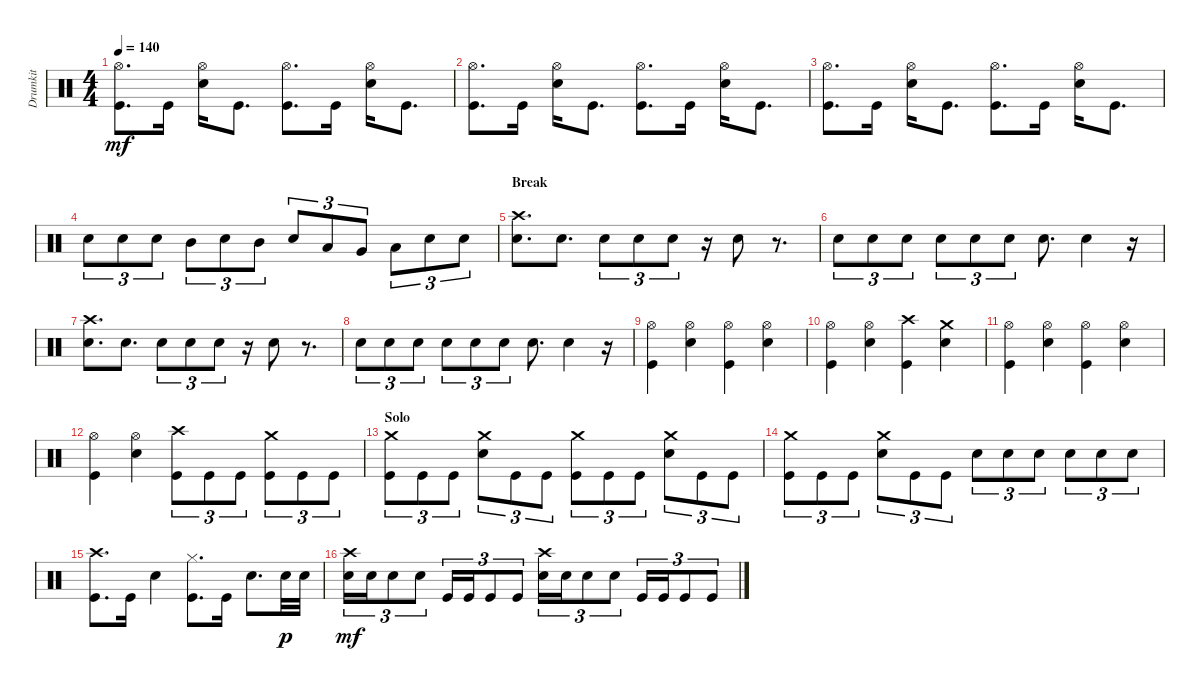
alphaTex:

\track ("Drumkit" "Drumkit") {instrument percussion}
\staff {score}
\articulation defaults
\ts (4 4)
\tempo 140
\clef neutral
\ks c
("Kick (hit)" "Hi-Hat (open)").8{d dy mf} "Kick (hit)".16 ("Snare (hit) 2" "Hi-Hat (open)").16 "Kick (hit)".8{d} ("Kick (hit)" "Hi-Hat (open)").8{d} "Kick (hit)".16 ("Snare (hit) 2" "Hi-Hat (open)").16 "Kick (hit)".8{d} |
("Kick (hit)" "Hi-Hat (open)").8{d} "Kick (hit)".16 ("Snare (hit) 2" "Hi-Hat (open)").16 "Kick (hit)".8{d} ("Kick (hit)" "Hi-Hat (open)").8{d} "Kick (hit)".16 ("Snare (hit) 2" "Hi-Hat (open)").16 "Kick (hit)".8{d} |
("Kick (hit)" "Hi-Hat (open)").8{d} "Kick (hit)".16 ("Snare (hit) 2" "Hi-Hat (open)").16 "Kick (hit)".8{d} ("Kick (hit)" "Hi-Hat (open)").8{d} "Kick (hit)".16 ("Snare (hit) 2" "Hi-Hat (open)").16 "Kick (hit)".8{d} |
"Snare (hit) 2".8{tu (3 2)} "Snare (hit) 2".8{tu (3 2)} "Snare (hit) 2".8{tu (3 2)} "Mid Tom (hit)".8{tu (3 2)} "Snare (hit) 2".8{tu (3 2)} "Mid Tom (hit)".8{tu (3 2)} "Snare (hit) 2".8{tu (3 2)} "Low Tom (hit)".8{tu (3 2)} "Very Low Tom (hit)".8{tu (3 2)} "Low Floor Tom (hit)".8{tu (3 2)} "Snare (hit) 2".8{tu (3 2)} "Snare (hit) 2".8{tu (3 2)} |
\section ("" "Break")
("Snare (hit) 2" "Crash high (hit)").8{d} "Snare (hit) 2".8{d} "Snare (hit) 2".8{tu (3 2)} "Snare (hit) 2".8{tu (3 2)} "Snare (hit) 2".8{tu (3 2)} r.16 "Snare (hit) 2".8 r.8{d} |
"Snare (hit) 2".8{tu (3 2)} "Snare (hit) 2".8{tu (3 2)} "Snare (hit) 2".8{tu (3 2)} "Snare (hit) 2".8{tu (3 2)} "Snare (hit) 2".8{tu (3 2)} "Snare (hit) 2".8{tu (3 2)} "Snare (hit) 2".8{d} "Snare (hit) 2".4 r.16 |
("Snare (hit) 2" "Crash high (hit)").8{d} "Snare (hit) 2".8{d} "Snare (hit) 2".8{tu (3 2)} "Snare (hit) 2".8{tu (3 2)} "Snare (hit) 2".8{tu (3 2)} r.16 "Snare (hit) 2".8 r.8{d} |
"Snare (hit) 2".8{tu (3 2)} "Snare (hit) 2".8{tu (3 2)} "Snare (hit) 2".8{tu (3 2)} "Snare (hit) 2".8{tu (3 2)} "Snare (hit) 2".8{tu (3 2)} "Snare (hit) 2".8{tu (3 2)} "Snare (hit) 2".8{d} "Snare (hit) 2".4 r.16 |
("Kick (hit)" "Hi-Hat (open)").4 ("Snare (hit) 2" "Hi-Hat (open)").4 ("Kick (hit)" "Hi-Hat (open)").4 ("Snare (hit) 2" "Hi-Hat (open)").4 |
("Kick (hit)" "Hi-Hat (open)").4 ("Snare (hit) 2" "Hi-Hat (open)").4 ("Kick (hit)" "Crash high (hit)").4 ("Snare (hit) 2" "Crash medium (hit)").4 |
("Kick (hit)" "Hi-Hat (open)").4 ("Snare (hit) 2" "Hi-Hat (open)").4 ("Kick (hit)" "Hi-Hat (open)").4 ("Snare (hit) 2" "Hi-Hat (open)").4 |
("Kick (hit)" "Hi-Hat (open)").4 ("Snare (hit) 2" "Hi-Hat (open)").4 ("Kick (hit)" "Crash high (hit)").8{tu (3 2)} "Kick (hit)".8{tu (3 2)} "Kick (hit)".8{tu (3 2)} ("Kick (hit)" "Crash medium (hit)").8{tu (3 2)} "Kick (hit)".8{tu (3 2)} "Kick (hit)".8{tu (3 2)} |
\section ("" "Solo")
("Kick (hit)" "Crash medium (hit)").8{tu (3 2)} "Kick (hit)".8{tu (3 2)} "Kick (hit)".8{tu (3 2)} ("Snare (hit) 2" "Crash medium (hit)").8{tu (3 2)} "Kick (hit)".8{tu (3 2)} "Kick (hit)".8{tu (3 2)} ("Kick (hit)" "Crash medium (hit)").8{tu (3 2)} "Kick (hit)".8{tu (3 2)} "Kick (hit)".8{tu (3 2)} ("Snare (hit) 2" "Crash medium (hit)").8{tu (3 2)} "Kick (hit)".8{tu (3 2)} "Kick (hit)".8{tu (3 2)} |
("Kick (hit)" "Crash medium (hit)").8{tu (3 2)} "Kick (hit)".8{tu (3 2)} "Kick (hit)".8{tu (3 2)} ("Snare (hit) 2" "Crash medium (hit)").8{tu (3 2)} "Kick (hit)".8{tu (3 2)} "Kick (hit)".8{tu (3 2)} "Snare (hit) 2".8{tu (3 2)} "Snare (hit) 2".8{tu (3 2)} "Snare (hit) 2".8{tu (3 2)} "Snare (hit) 2".8{tu (3 2)} "Snare (hit) 2".8{tu (3 2)} "Snare (hit) 2".8{tu (3 2)} |
("Kick (hit)" "Crash high (hit)").8{d} "Kick (hit)".16 "Snare (hit) 2".4 ("Kick (hit)" "Hi-Hat (closed)").8{d} "Kick (hit)".16 "Snare (hit) 2".8{d} "Snare (hit) 2".32{dy p} "Snare (hit) 2".32 |
("Snare (hit) 2" "Crash high (hit)").16{tu (3 2) dy mf} "Snare (hit) 2".16{tu (3 2)} "Snare (hit) 2".8{tu (3 2)} "Snare (hit) 2".8{tu (3 2)} "Kick (hit)".16{tu (3 2)} "Kick (hit)".16{tu (3 2)} "Kick (hit)".8{tu (3 2)} "Kick (hit)".8{tu (3 2)} ("Snare (hit) 2" "Crash high (hit)").16{tu (3 2)} "Snare (hit) 2".16{tu (3 2)} "Snare (hit) 2".8{tu (3 2)} "Snare (hit) 2".8{tu (3 2)} "Kick (hit)".16{tu (3 2)} "Kick (hit)".16{tu (3 2)} "Kick (hit)".8{tu (3 2)} "Kick (hit)".8{tu (3 2)}
